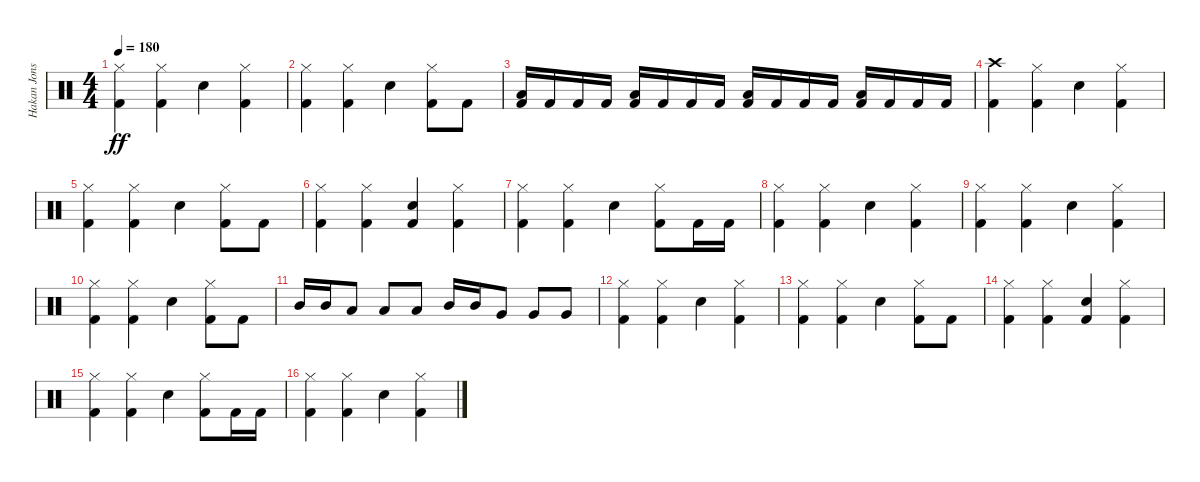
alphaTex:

\track ("Hakan Jonsson" "Hakan Jons") {instrument percussion}
\staff {score}
\articulation defaults
\ts (4 4)
\tempo 180
\clef neutral
\ks c
("Hi-Hat (closed)" "Kick (hit) 2").4{dy ff} ("Hi-Hat (closed)" "Kick (hit) 2").4 "Electric Snare (hit)".4 ("Hi-Hat (closed)" "Kick (hit) 2").4 |
("Hi-Hat (closed)" "Kick (hit) 2").4 ("Hi-Hat (closed)" "Kick (hit) 2").4 "Electric Snare (hit)".4 ("Hi-Hat (closed)" "Kick (hit) 2").8 "Kick (hit) 2".8 |
("Low Tom (hit)" "Kick (hit) 2").16 "Kick (hit) 2".16 "Kick (hit) 2".16 "Kick (hit) 2".16 ("Low Tom (hit)" "Kick (hit) 2").16 "Kick (hit) 2".16 "Kick (hit) 2".16 "Kick (hit) 2".16 ("Low Tom (hit)" "Kick (hit) 2").16 "Kick (hit) 2".16 "Kick (hit) 2".16 "Kick (hit) 2".16 ("Low Tom (hit)" "Kick (hit) 2").16 "Kick (hit) 2".16 "Kick (hit) 2".16 "Kick (hit) 2".16 |
("Crash high (hit)" "Kick (hit) 2").4 ("Hi-Hat (closed)" "Kick (hit) 2").4 "Electric Snare (hit)".4 ("Hi-Hat (closed)" "Kick (hit) 2").4 |
("Hi-Hat (closed)" "Kick (hit) 2").4 ("Hi-Hat (closed)" "Kick (hit) 2").4 "Electric Snare (hit)".4 ("Hi-Hat (closed)" "Kick (hit) 2").8 "Kick (hit) 2".8 |
("Hi-Hat (closed)" "Kick (hit) 2").4 ("Hi-Hat (closed)" "Kick (hit) 2").4 ("Electric Snare (hit)" "Kick (hit) 2").4 ("Hi-Hat (closed)" "Kick (hit) 2").4 |
("Hi-Hat (closed)" "Kick (hit) 2").4 ("Hi-Hat (closed)" "Kick (hit) 2").4 "Electric Snare (hit)".4 ("Hi-Hat (closed)" "Kick (hit) 2").8 "Kick (hit) 2".16 "Kick (hit) 2".16 |
("Hi-Hat (closed)" "Kick (hit) 2").4 ("Hi-Hat (closed)" "Kick (hit) 2").4 "Electric Snare (hit)".4 ("Hi-Hat (closed)" "Kick (hit) 2").4 |
("Hi-Hat (closed)" "Kick (hit) 2").4 ("Hi-Hat (closed)" "Kick (hit) 2").4 "Electric Snare (hit)".4 ("Hi-Hat (closed)" "Kick (hit) 2").4 |
("Hi-Hat (closed)" "Kick (hit) 2").4 ("Hi-Hat (closed)" "Kick (hit) 2").4 "Electric Snare (hit)".4 ("Hi-Hat (closed)" "Kick (hit) 2").8 "Kick (hit) 2".8 |
"Mid Tom (hit)".16 "Mid Tom (hit)".16 "Low Tom (hit)".8 "Low Tom (hit)".8 "Low Tom (hit)".8 "Mid Tom (hit)".16 "Mid Tom (hit)".16 "Very Low Tom (hit)".8 "Very Low Tom (hit)".8 "Very Low Tom (hit)".8 |
("Hi-Hat (closed)" "Kick (hit) 2").4 ("Hi-Hat (closed)" "Kick (hit) 2").4 "Electric Snare (hit)".4 ("Hi-Hat (closed)" "Kick (hit) 2").4 |
("Hi-Hat (closed)" "Kick (hit) 2").4 ("Hi-Hat (closed)" "Kick (hit) 2").4 "Electric Snare (hit)".4 ("Hi-Hat (closed)" "Kick (hit) 2").8 "Kick (hit) 2".8 |
("Hi-Hat (closed)" "Kick (hit) 2").4 ("Hi-Hat (closed)" "Kick (hit) 2").4 ("Electric Snare (hit)" "Kick (hit) 2").4 ("Hi-Hat (closed)" "Kick (hit) 2").4 |
("Hi-Hat (closed)" "Kick (hit) 2").4 ("Hi-Hat (closed)" "Kick (hit) 2").4 "Electric Snare (hit)".4 ("Hi-Hat (closed)" "Kick (hit) 2").8 "Kick (hit) 2".16 "Kick (hit) 2".16 |
("Hi-Hat (closed)" "Kick (hit) 2").4 ("Hi-Hat (closed)" "Kick (hit) 2").4 "Electric Snare (hit)".4 ("Hi-Hat (closed)" "Kick (hit) 2").4
